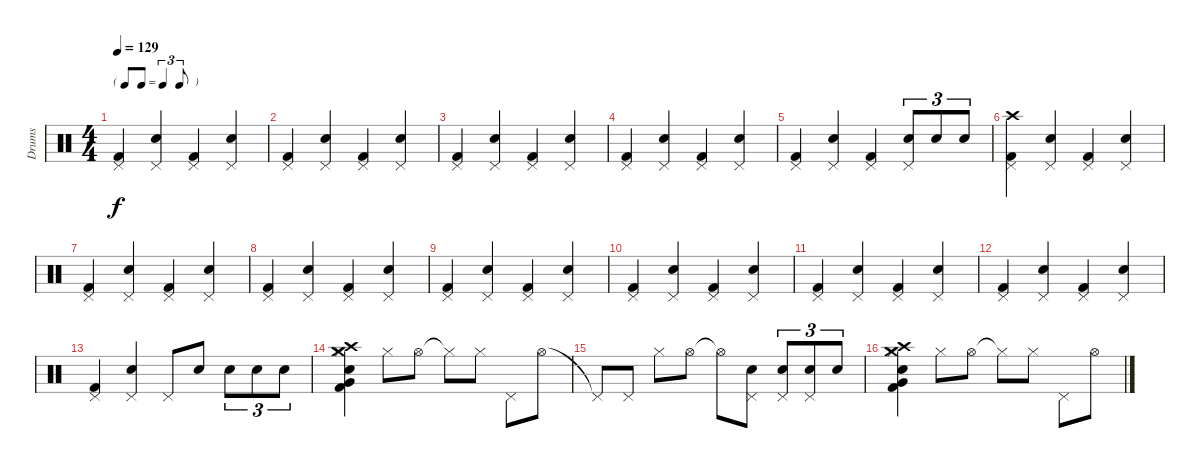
\track ("Drums" "Drums") {instrument percussion}
\staff {score}
\articulation defaults
\ts (4 4)
\tf triplet8th
\tempo 129
\clef neutral
\ks c
("Pedal Hi-Hat (hit)" "Kick (hit) 2").4{dy f} ("Pedal Hi-Hat (hit)" "Electric Snare (hit)").4 ("Pedal Hi-Hat (hit)" "Kick (hit) 2").4 ("Pedal Hi-Hat (hit)" "Electric Snare (hit)").4 |
("Pedal Hi-Hat (hit)" "Kick (hit) 2").4 ("Pedal Hi-Hat (hit)" "Electric Snare (hit)").4 ("Pedal Hi-Hat (hit)" "Kick (hit) 2").4 ("Pedal Hi-Hat (hit)" "Electric Snare (hit)").4 |
("Pedal Hi-Hat (hit)" "Kick (hit) 2").4 ("Pedal Hi-Hat (hit)" "Electric Snare (hit)").4 ("Pedal Hi-Hat (hit)" "Kick (hit) 2").4 ("Pedal Hi-Hat (hit)" "Electric Snare (hit)").4 |
("Pedal Hi-Hat (hit)" "Kick (hit) 2").4 ("Pedal Hi-Hat (hit)" "Electric Snare (hit)").4 ("Pedal Hi-Hat (hit)" "Kick (hit) 2").4 ("Pedal Hi-Hat (hit)" "Electric Snare (hit)").4 |
("Pedal Hi-Hat (hit)" "Kick (hit) 2").4 ("Pedal Hi-Hat (hit)" "Electric Snare (hit)").4 ("Pedal Hi-Hat (hit)" "Kick (hit) 2").4 ("Pedal Hi-Hat (hit)" "Electric Snare (hit)").8{tu (3 2)} "Electric Snare (hit)".8{tu (3 2)} "Electric Snare (hit)".8{tu (3 2)} |
("Crash high (hit)" "Pedal Hi-Hat (hit)" "Kick (hit) 2").4 ("Pedal Hi-Hat (hit)" "Electric Snare (hit)").4 ("Pedal Hi-Hat (hit)" "Kick (hit) 2").4 ("Pedal Hi-Hat (hit)" "Electric Snare (hit)").4 |
("Pedal Hi-Hat (hit)" "Kick (hit) 2").4 ("Pedal Hi-Hat (hit)" "Electric Snare (hit)").4 ("Pedal Hi-Hat (hit)" "Kick (hit) 2").4 ("Pedal Hi-Hat (hit)" "Electric Snare (hit)").4 |
("Pedal Hi-Hat (hit)" "Kick (hit) 2").4 ("Pedal Hi-Hat (hit)" "Electric Snare (hit)").4 ("Pedal Hi-Hat (hit)" "Kick (hit) 2").4 ("Pedal Hi-Hat (hit)" "Electric Snare (hit)").4 |
("Pedal Hi-Hat (hit)" "Kick (hit) 2").4 ("Pedal Hi-Hat (hit)" "Electric Snare (hit)").4 ("Pedal Hi-Hat (hit)" "Kick (hit) 2").4 ("Pedal Hi-Hat (hit)" "Electric Snare (hit)").4 |
("Pedal Hi-Hat (hit)" "Kick (hit) 2").4 ("Pedal Hi-Hat (hit)" "Electric Snare (hit)").4 ("Pedal Hi-Hat (hit)" "Kick (hit) 2").4 ("Pedal Hi-Hat (hit)" "Electric Snare (hit)").4 |
("Pedal Hi-Hat (hit)" "Kick (hit) 2").4 ("Pedal Hi-Hat (hit)" "Electric Snare (hit)").4 ("Pedal Hi-Hat (hit)" "Kick (hit) 2").4 ("Pedal Hi-Hat (hit)" "Electric Snare (hit)").4 |
("Pedal Hi-Hat (hit)" "Kick (hit) 2").4 ("Pedal Hi-Hat (hit)" "Electric Snare (hit)").4 ("Pedal Hi-Hat (hit)" "Kick (hit) 2").4 ("Pedal Hi-Hat (hit)" "Electric Snare (hit)").4 |
("Pedal Hi-Hat (hit)" "Kick (hit) 2").4 ("Pedal Hi-Hat (hit)" "Electric Snare (hit)").4 "Pedal Hi-Hat (hit)".8 "Electric Snare (hit)".8 "Electric Snare (hit)".8{tu (3 2)} "Electric Snare (hit)".8{tu (3 2)} "Electric Snare (hit)".8{tu (3 2)} |
("Very Low Tom (hit)" "Kick (hit) 2" "Crash medium (hit)" "Hi-Hat (closed)" "Crash high (hit)" "Electric Snare (hit)").4 "Hi-Hat (closed)".8 "Hi-Hat (open)".8 "Hi-Hat (closed)"{t}.8 "Hi-Hat (closed)".8 "Pedal Hi-Hat (hit)".8 "Hi-Hat (open)".8 |
"Pedal Hi-Hat (hit)"{t}.8 "Pedal Hi-Hat (hit)".8 "Hi-Hat (closed)".8 "Hi-Hat (open)".8 "Hi-Hat (open)"{t}.8 ("Pedal Hi-Hat (hit)" "Electric Snare (hit)").8 ("Pedal Hi-Hat (hit)" "Electric Snare (hit)").8{tu (3 2)} ("Pedal Hi-Hat (hit)" "Electric Snare (hit)").8{tu (3 2)} "Electric Snare (hit)".8{tu (3 2)} |
("Very Low Tom (hit)" "Kick (hit) 2" "Crash medium (hit)" "Hi-Hat (closed)" "Crash high (hit)" "Electric Snare (hit)").4 "Hi-Hat (closed)".8 "Hi-Hat (open)".8 "Hi-Hat (closed)"{t}.8 "Hi-Hat (closed)".8 "Pedal Hi-Hat (hit)".8 "Hi-Hat (open)".8
